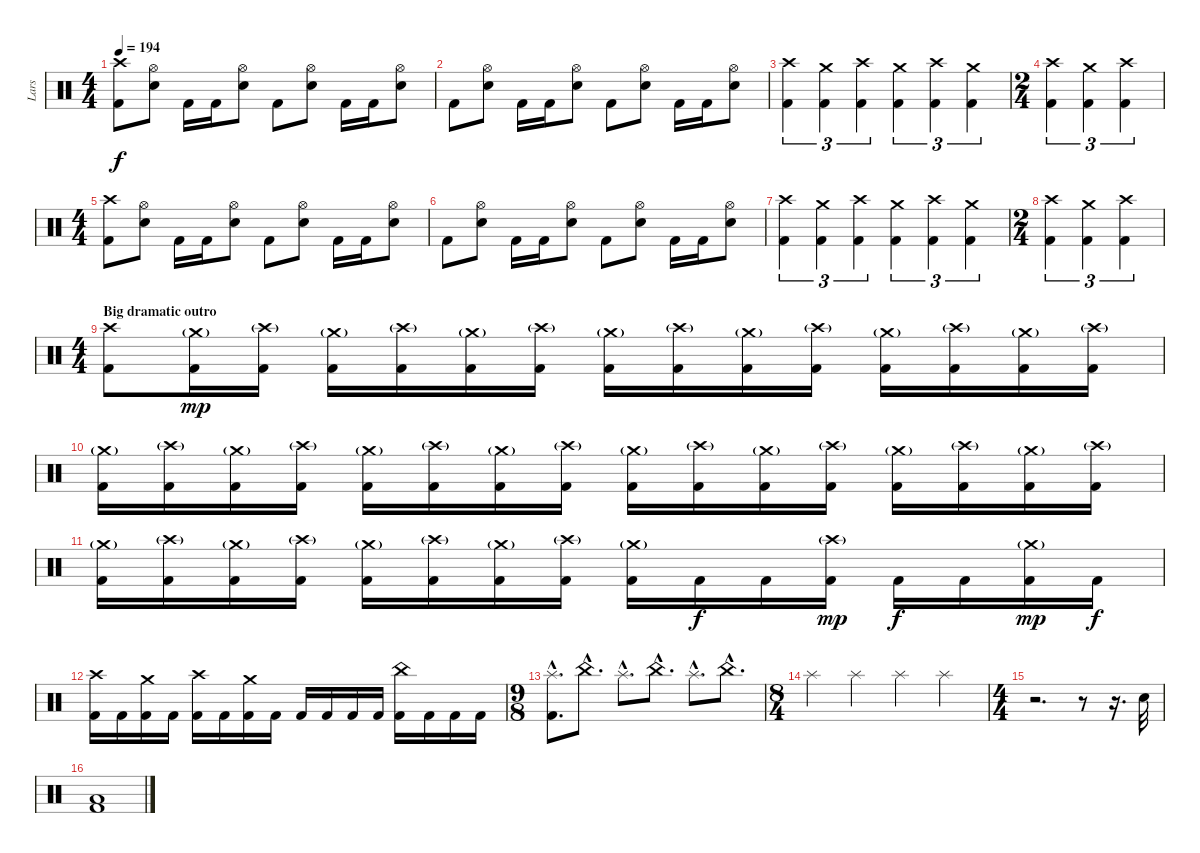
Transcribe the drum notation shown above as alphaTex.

\track ("Lars" "Lars") {instrument percussion}
\staff {score}
\articulation defaults
\ts (4 4)
\tempo 194
\clef neutral
\ks c
("Kick (hit) 2" "Crash high (hit)").8{dy f} ("Electric Snare (hit)" "Hi-Hat (open)").8 "Kick (hit) 2".16 "Kick (hit) 2".16 ("Electric Snare (hit)" "Hi-Hat (open)").8 "Kick (hit) 2".8 ("Electric Snare (hit)" "Hi-Hat (open)").8 "Kick (hit) 2".16 "Kick (hit) 2".16 ("Electric Snare (hit)" "Hi-Hat (open)").8 |
"Kick (hit) 2".8 ("Electric Snare (hit)" "Hi-Hat (open)").8 "Kick (hit) 2".16 "Kick (hit) 2".16 ("Electric Snare (hit)" "Hi-Hat (open)").8 "Kick (hit) 2".8 ("Electric Snare (hit)" "Hi-Hat (open)").8 "Kick (hit) 2".16 "Kick (hit) 2".16 ("Electric Snare (hit)" "Hi-Hat (open)").8 |
("Kick (hit) 2" "Crash high (hit)").4{tu (3 2)} ("Kick (hit) 2" "Crash medium (hit)").4{tu (3 2)} ("Kick (hit) 2" "Crash high (hit)").4{tu (3 2)} ("Kick (hit) 2" "Crash medium (hit)").4{tu (3 2)} ("Kick (hit) 2" "Crash high (hit)").4{tu (3 2)} ("Kick (hit) 2" "Crash medium (hit)").4{tu (3 2)} |
\ts (2 4)
("Kick (hit) 2" "Crash high (hit)").4{tu (3 2)} ("Kick (hit) 2" "Crash medium (hit)").4{tu (3 2)} ("Kick (hit) 2" "Crash high (hit)").4{tu (3 2)} |
\ts (4 4)
("Kick (hit) 2" "Crash high (hit)").8 ("Electric Snare (hit)" "Hi-Hat (open)").8 "Kick (hit) 2".16 "Kick (hit) 2".16 ("Electric Snare (hit)" "Hi-Hat (open)").8 "Kick (hit) 2".8 ("Electric Snare (hit)" "Hi-Hat (open)").8 "Kick (hit) 2".16 "Kick (hit) 2".16 ("Electric Snare (hit)" "Hi-Hat (open)").8 |
"Kick (hit) 2".8 ("Electric Snare (hit)" "Hi-Hat (open)").8 "Kick (hit) 2".16 "Kick (hit) 2".16 ("Electric Snare (hit)" "Hi-Hat (open)").8 "Kick (hit) 2".8 ("Electric Snare (hit)" "Hi-Hat (open)").8 "Kick (hit) 2".16 "Kick (hit) 2".16 ("Electric Snare (hit)" "Hi-Hat (open)").8 |
("Kick (hit) 2" "Crash high (hit)").4{tu (3 2)} ("Kick (hit) 2" "Crash medium (hit)").4{tu (3 2)} ("Kick (hit) 2" "Crash high (hit)").4{tu (3 2)} ("Kick (hit) 2" "Crash medium (hit)").4{tu (3 2)} ("Kick (hit) 2" "Crash high (hit)").4{tu (3 2)} ("Kick (hit) 2" "Crash medium (hit)").4{tu (3 2)} |
\ts (2 4)
("Kick (hit) 2" "Crash high (hit)").4{tu (3 2)} ("Kick (hit) 2" "Crash medium (hit)").4{tu (3 2)} ("Kick (hit) 2" "Crash high (hit)").4{tu (3 2)} |
\ts (4 4)
\section ("" "Big dramatic outro")
("Kick (hit) 2" "Crash high (hit)").8 ("Kick (hit) 2" "Crash medium (hit)"{g}).16{dy mp} ("Kick (hit) 2" "Crash high (hit)"{g}).16 ("Kick (hit) 2" "Crash medium (hit)"{g}).16 ("Kick (hit) 2" "Crash high (hit)"{g}).16 ("Kick (hit) 2" "Crash medium (hit)"{g}).16 ("Kick (hit) 2" "Crash high (hit)"{g}).16 ("Kick (hit) 2" "Crash medium (hit)"{g}).16 ("Kick (hit) 2" "Crash high (hit)"{g}).16 ("Kick (hit) 2" "Crash medium (hit)"{g}).16 ("Kick (hit) 2" "Crash high (hit)"{g}).16 ("Kick (hit) 2" "Crash medium (hit)"{g}).16 ("Kick (hit) 2" "Crash high (hit)"{g}).16 ("Kick (hit) 2" "Crash medium (hit)"{g}).16 ("Kick (hit) 2" "Crash high (hit)"{g}).16 |
("Kick (hit) 2" "Crash medium (hit)"{g}).16 ("Kick (hit) 2" "Crash high (hit)"{g}).16 ("Kick (hit) 2" "Crash medium (hit)"{g}).16 ("Kick (hit) 2" "Crash high (hit)"{g}).16 ("Kick (hit) 2" "Crash medium (hit)"{g}).16 ("Kick (hit) 2" "Crash high (hit)"{g}).16 ("Kick (hit) 2" "Crash medium (hit)"{g}).16 ("Kick (hit) 2" "Crash high (hit)"{g}).16 ("Kick (hit) 2" "Crash medium (hit)"{g}).16 ("Kick (hit) 2" "Crash high (hit)"{g}).16 ("Kick (hit) 2" "Crash medium (hit)"{g}).16 ("Kick (hit) 2" "Crash high (hit)"{g}).16 ("Kick (hit) 2" "Crash medium (hit)"{g}).16 ("Kick (hit) 2" "Crash high (hit)"{g}).16 ("Kick (hit) 2" "Crash medium (hit)"{g}).16 ("Kick (hit) 2" "Crash high (hit)"{g}).16 |
("Kick (hit) 2" "Crash medium (hit)"{g}).16 ("Kick (hit) 2" "Crash high (hit)"{g}).16 ("Kick (hit) 2" "Crash medium (hit)"{g}).16 ("Kick (hit) 2" "Crash high (hit)"{g}).16 ("Kick (hit) 2" "Crash medium (hit)"{g}).16 ("Kick (hit) 2" "Crash high (hit)"{g}).16 ("Kick (hit) 2" "Crash medium (hit)"{g}).16 ("Kick (hit) 2" "Crash high (hit)"{g}).16 ("Kick (hit) 2" "Crash medium (hit)"{g}).16 "Kick (hit) 2".16{dy f} "Kick (hit) 2".16 ("Kick (hit) 2" "Crash high (hit)"{g}).16{dy mp} "Kick (hit) 2".16{dy f} "Kick (hit) 2".16 ("Kick (hit) 2" "Crash medium (hit)"{g}).16{dy mp} "Kick (hit) 2".16{dy f} |
("Kick (hit) 2" "Crash high (hit)").16 "Kick (hit) 2".16 ("Kick (hit) 2" "Crash medium (hit)").16 "Kick (hit) 2".16 ("Kick (hit) 2" "Crash high (hit)").16 "Kick (hit) 2".16 ("Kick (hit) 2" "Crash medium (hit)").16 "Kick (hit) 2".16 "Kick (hit) 2".16 "Kick (hit) 2".16 "Kick (hit) 2".16 "Kick (hit) 2".16 ("Kick (hit) 2" "China (hit)").16 "Kick (hit) 2".16 "Kick (hit) 2".16 "Kick (hit) 2".16 |
\ts (9 8)
("Kick (hit) 2"{hac} "Splash (hit)"{hac}).8{d} "China (hit)"{hac}.8{d} "Splash (hit)"{hac}.8{d} "China (hit)"{hac}.8{d} "Splash (hit)"{hac}.8{d} "China (hit)"{hac}.8{d} |
\ts (8 4)
"Splash (hit)".2 "Splash (hit)".2 "Splash (hit)".2 "Splash (hit)".2 |
\ts (4 4)
r.2{d} r.8 r.16{d} "Electric Snare (hit)".32 |
("Low Tom (hit)" "Kick (hit) 2").1
